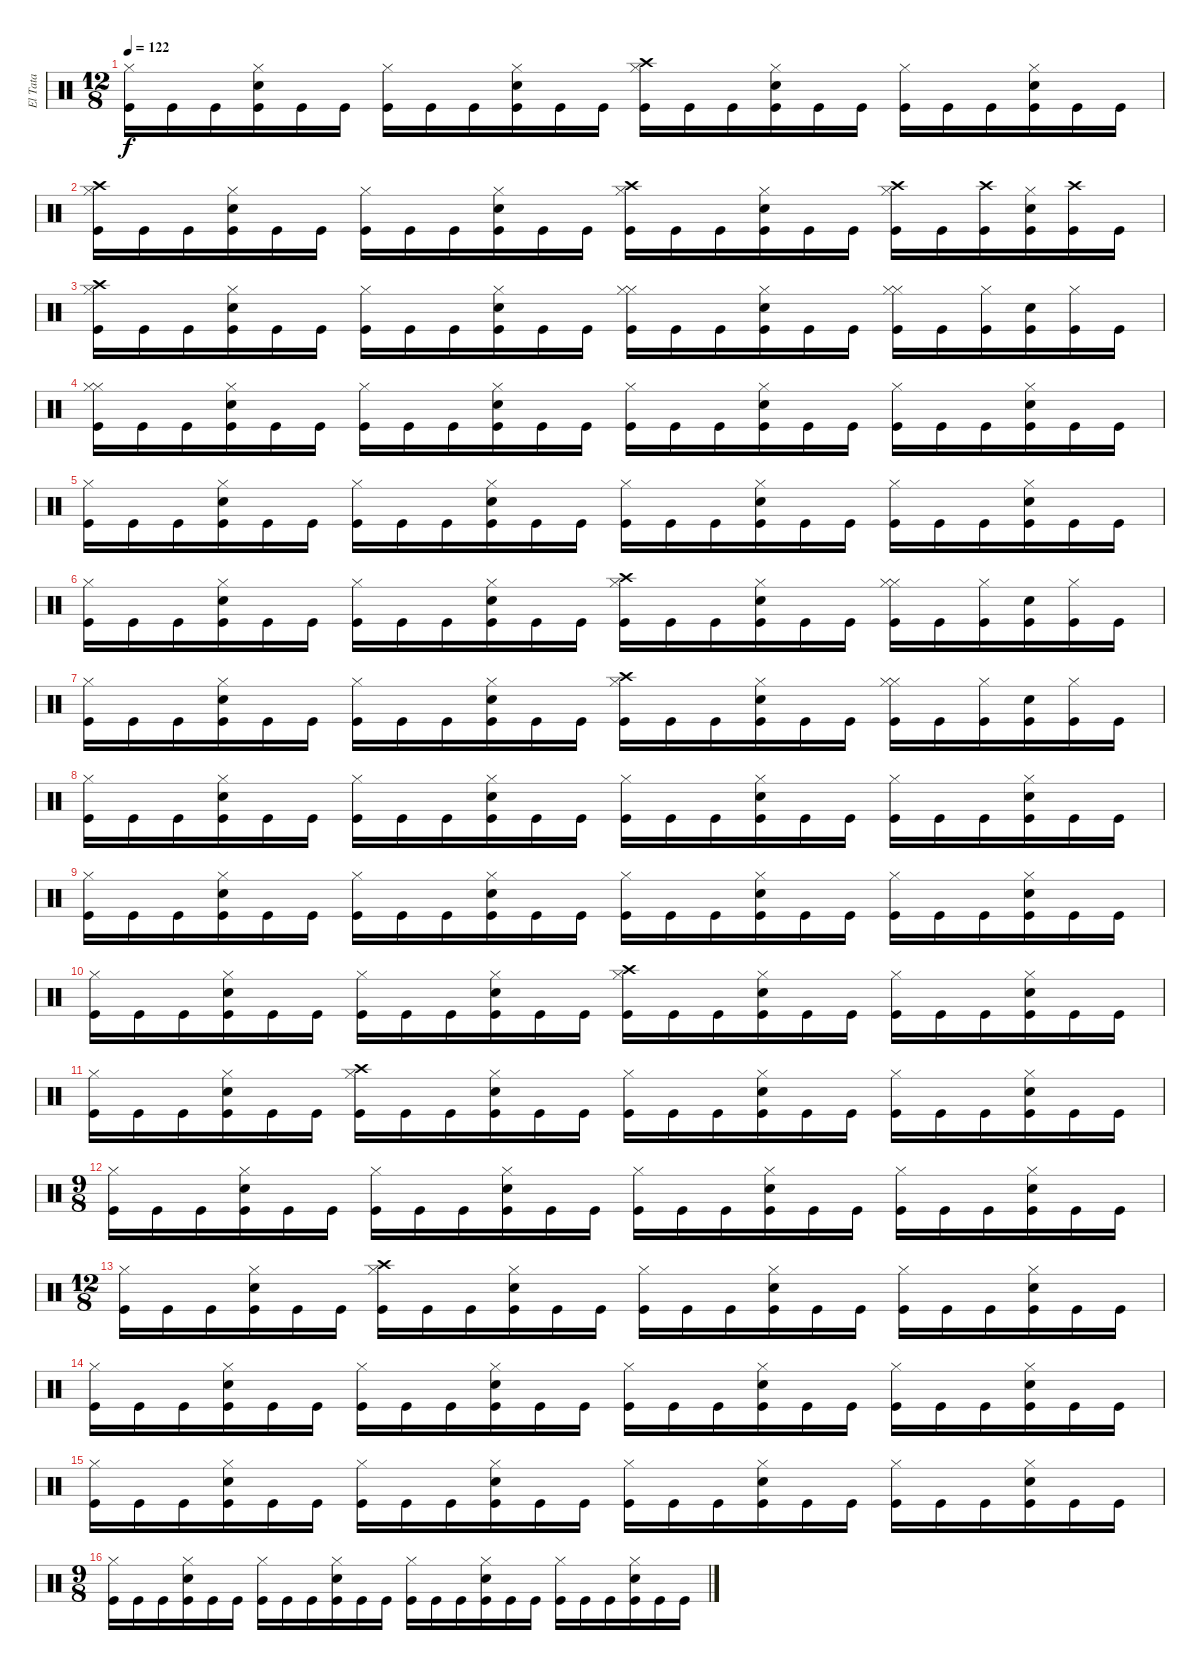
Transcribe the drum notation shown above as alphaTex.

\track ("El Tata" "El Tata") {instrument percussion}
\staff {score}
\articulation defaults
\ts (12 8)
\tempo 122
\clef neutral
\ks c
("Kick (hit)" "Hi-Hat (closed)").16{dy f} "Kick (hit)".16 "Kick (hit)".16 ("Kick (hit)" "Hi-Hat (closed)" "Electric Snare (hit)").16 "Kick (hit)".16 "Kick (hit)".16 ("Kick (hit)" "Hi-Hat (closed)").16 "Kick (hit)".16 "Kick (hit)".16 ("Kick (hit)" "Hi-Hat (closed)" "Electric Snare (hit)").16 "Kick (hit)".16 "Kick (hit)".16 ("Kick (hit)" "Hi-Hat (closed)" "Crash high (hit)").16 "Kick (hit)".16 "Kick (hit)".16 ("Kick (hit)" "Hi-Hat (closed)" "Electric Snare (hit)").16 "Kick (hit)".16 "Kick (hit)".16 ("Kick (hit)" "Hi-Hat (closed)").16 "Kick (hit)".16 "Kick (hit)".16 ("Kick (hit)" "Hi-Hat (closed)" "Electric Snare (hit)").16 "Kick (hit)".16 "Kick (hit)".16 |
("Kick (hit)" "Hi-Hat (closed)" "Crash high (hit)").16 "Kick (hit)".16 "Kick (hit)".16 ("Kick (hit)" "Hi-Hat (closed)" "Electric Snare (hit)").16 "Kick (hit)".16 "Kick (hit)".16 ("Kick (hit)" "Hi-Hat (closed)").16 "Kick (hit)".16 "Kick (hit)".16 ("Kick (hit)" "Hi-Hat (closed)" "Electric Snare (hit)").16 "Kick (hit)".16 "Kick (hit)".16 ("Kick (hit)" "Hi-Hat (closed)" "Crash high (hit)").16 "Kick (hit)".16 "Kick (hit)".16 ("Kick (hit)" "Hi-Hat (closed)" "Electric Snare (hit)").16 "Kick (hit)".16 "Kick (hit)".16 ("Kick (hit)" "Hi-Hat (closed)" "Crash high (hit)").16 "Kick (hit)".16 ("Kick (hit)" "Crash high (hit)").16 ("Kick (hit)" "Hi-Hat (closed)" "Electric Snare (hit)").16 ("Kick (hit)" "Crash high (hit)").16 "Kick (hit)".16 |
("Kick (hit)" "Hi-Hat (closed)" "Crash high (hit)").16 "Kick (hit)".16 "Kick (hit)".16 ("Kick (hit)" "Hi-Hat (closed)" "Electric Snare (hit)").16 "Kick (hit)".16 "Kick (hit)".16 ("Kick (hit)" "Hi-Hat (closed)").16 "Kick (hit)".16 "Kick (hit)".16 ("Kick (hit)" "Hi-Hat (closed)" "Electric Snare (hit)").16 "Kick (hit)".16 "Kick (hit)".16 ("Kick (hit)" "Hi-Hat (closed)" "Hi-Hat (closed)").16 "Kick (hit)".16 "Kick (hit)".16 ("Kick (hit)" "Hi-Hat (closed)" "Electric Snare (hit)").16 "Kick (hit)".16 "Kick (hit)".16 ("Kick (hit)" "Hi-Hat (closed)" "Hi-Hat (closed)").16 "Kick (hit)".16 ("Kick (hit)" "Hi-Hat (closed)").16 ("Kick (hit)" "Electric Snare (hit)").16 ("Kick (hit)" "Hi-Hat (closed)").16 "Kick (hit)".16 |
("Kick (hit)" "Hi-Hat (closed)" "Hi-Hat (closed)").16 "Kick (hit)".16 "Kick (hit)".16 ("Kick (hit)" "Hi-Hat (closed)" "Electric Snare (hit)").16 "Kick (hit)".16 "Kick (hit)".16 ("Kick (hit)" "Hi-Hat (closed)").16 "Kick (hit)".16 "Kick (hit)".16 ("Kick (hit)" "Hi-Hat (closed)" "Electric Snare (hit)").16 "Kick (hit)".16 "Kick (hit)".16 ("Kick (hit)" "Hi-Hat (closed)").16 "Kick (hit)".16 "Kick (hit)".16 ("Kick (hit)" "Hi-Hat (closed)" "Electric Snare (hit)").16 "Kick (hit)".16 "Kick (hit)".16 ("Kick (hit)" "Hi-Hat (closed)").16 "Kick (hit)".16 "Kick (hit)".16 ("Kick (hit)" "Hi-Hat (closed)" "Electric Snare (hit)").16 "Kick (hit)".16 "Kick (hit)".16 |
("Kick (hit)" "Hi-Hat (closed)").16 "Kick (hit)".16 "Kick (hit)".16 ("Kick (hit)" "Hi-Hat (closed)" "Electric Snare (hit)").16 "Kick (hit)".16 "Kick (hit)".16 ("Kick (hit)" "Hi-Hat (closed)").16 "Kick (hit)".16 "Kick (hit)".16 ("Kick (hit)" "Hi-Hat (closed)" "Electric Snare (hit)").16 "Kick (hit)".16 "Kick (hit)".16 ("Kick (hit)" "Hi-Hat (closed)").16 "Kick (hit)".16 "Kick (hit)".16 ("Kick (hit)" "Hi-Hat (closed)" "Electric Snare (hit)").16 "Kick (hit)".16 "Kick (hit)".16 ("Kick (hit)" "Hi-Hat (closed)").16 "Kick (hit)".16 "Kick (hit)".16 ("Kick (hit)" "Hi-Hat (closed)" "Electric Snare (hit)").16 "Kick (hit)".16 "Kick (hit)".16 |
("Kick (hit)" "Hi-Hat (closed)").16 "Kick (hit)".16 "Kick (hit)".16 ("Kick (hit)" "Hi-Hat (closed)" "Electric Snare (hit)").16 "Kick (hit)".16 "Kick (hit)".16 ("Kick (hit)" "Hi-Hat (closed)").16 "Kick (hit)".16 "Kick (hit)".16 ("Kick (hit)" "Hi-Hat (closed)" "Electric Snare (hit)").16 "Kick (hit)".16 "Kick (hit)".16 ("Kick (hit)" "Hi-Hat (closed)" "Crash high (hit)").16 "Kick (hit)".16 "Kick (hit)".16 ("Kick (hit)" "Hi-Hat (closed)" "Electric Snare (hit)").16 "Kick (hit)".16 "Kick (hit)".16 ("Kick (hit)" "Hi-Hat (closed)" "Hi-Hat (closed)").16 "Kick (hit)".16 ("Kick (hit)" "Hi-Hat (closed)").16 ("Kick (hit)" "Electric Snare (hit)").16 ("Kick (hit)" "Hi-Hat (closed)").16 "Kick (hit)".16 |
("Kick (hit)" "Hi-Hat (closed)").16 "Kick (hit)".16 "Kick (hit)".16 ("Kick (hit)" "Hi-Hat (closed)" "Electric Snare (hit)").16 "Kick (hit)".16 "Kick (hit)".16 ("Kick (hit)" "Hi-Hat (closed)").16 "Kick (hit)".16 "Kick (hit)".16 ("Kick (hit)" "Hi-Hat (closed)" "Electric Snare (hit)").16 "Kick (hit)".16 "Kick (hit)".16 ("Kick (hit)" "Hi-Hat (closed)" "Crash high (hit)").16 "Kick (hit)".16 "Kick (hit)".16 ("Kick (hit)" "Hi-Hat (closed)" "Electric Snare (hit)").16 "Kick (hit)".16 "Kick (hit)".16 ("Kick (hit)" "Hi-Hat (closed)" "Hi-Hat (closed)").16 "Kick (hit)".16 ("Kick (hit)" "Hi-Hat (closed)").16 ("Kick (hit)" "Electric Snare (hit)").16 ("Kick (hit)" "Hi-Hat (closed)").16 "Kick (hit)".16 |
("Kick (hit)" "Hi-Hat (closed)").16 "Kick (hit)".16 "Kick (hit)".16 ("Kick (hit)" "Hi-Hat (closed)" "Electric Snare (hit)").16 "Kick (hit)".16 "Kick (hit)".16 ("Kick (hit)" "Hi-Hat (closed)").16 "Kick (hit)".16 "Kick (hit)".16 ("Kick (hit)" "Hi-Hat (closed)" "Electric Snare (hit)").16 "Kick (hit)".16 "Kick (hit)".16 ("Kick (hit)" "Hi-Hat (closed)").16 "Kick (hit)".16 "Kick (hit)".16 ("Kick (hit)" "Hi-Hat (closed)" "Electric Snare (hit)").16 "Kick (hit)".16 "Kick (hit)".16 ("Kick (hit)" "Hi-Hat (closed)").16 "Kick (hit)".16 "Kick (hit)".16 ("Kick (hit)" "Hi-Hat (closed)" "Electric Snare (hit)").16 "Kick (hit)".16 "Kick (hit)".16 |
("Kick (hit)" "Hi-Hat (closed)").16 "Kick (hit)".16 "Kick (hit)".16 ("Kick (hit)" "Hi-Hat (closed)" "Electric Snare (hit)").16 "Kick (hit)".16 "Kick (hit)".16 ("Kick (hit)" "Hi-Hat (closed)").16 "Kick (hit)".16 "Kick (hit)".16 ("Kick (hit)" "Hi-Hat (closed)" "Electric Snare (hit)").16 "Kick (hit)".16 "Kick (hit)".16 ("Kick (hit)" "Hi-Hat (closed)").16 "Kick (hit)".16 "Kick (hit)".16 ("Kick (hit)" "Hi-Hat (closed)" "Electric Snare (hit)").16 "Kick (hit)".16 "Kick (hit)".16 ("Kick (hit)" "Hi-Hat (closed)").16 "Kick (hit)".16 "Kick (hit)".16 ("Kick (hit)" "Hi-Hat (closed)" "Electric Snare (hit)").16 "Kick (hit)".16 "Kick (hit)".16 |
("Kick (hit)" "Hi-Hat (closed)").16 "Kick (hit)".16 "Kick (hit)".16 ("Kick (hit)" "Hi-Hat (closed)" "Electric Snare (hit)").16 "Kick (hit)".16 "Kick (hit)".16 ("Kick (hit)" "Hi-Hat (closed)").16 "Kick (hit)".16 "Kick (hit)".16 ("Kick (hit)" "Hi-Hat (closed)" "Electric Snare (hit)").16 "Kick (hit)".16 "Kick (hit)".16 ("Kick (hit)" "Hi-Hat (closed)" "Crash high (hit)").16 "Kick (hit)".16 "Kick (hit)".16 ("Kick (hit)" "Hi-Hat (closed)" "Electric Snare (hit)").16 "Kick (hit)".16 "Kick (hit)".16 ("Kick (hit)" "Hi-Hat (closed)").16 "Kick (hit)".16 "Kick (hit)".16 ("Kick (hit)" "Hi-Hat (closed)" "Electric Snare (hit)").16 "Kick (hit)".16 "Kick (hit)".16 |
("Kick (hit)" "Hi-Hat (closed)").16 "Kick (hit)".16 "Kick (hit)".16 ("Kick (hit)" "Hi-Hat (closed)" "Electric Snare (hit)").16 "Kick (hit)".16 "Kick (hit)".16 ("Kick (hit)" "Hi-Hat (closed)" "Crash high (hit)").16 "Kick (hit)".16 "Kick (hit)".16 ("Kick (hit)" "Hi-Hat (closed)" "Electric Snare (hit)").16 "Kick (hit)".16 "Kick (hit)".16 ("Kick (hit)" "Hi-Hat (closed)").16 "Kick (hit)".16 "Kick (hit)".16 ("Kick (hit)" "Hi-Hat (closed)" "Electric Snare (hit)").16 "Kick (hit)".16 "Kick (hit)".16 ("Kick (hit)" "Hi-Hat (closed)").16 "Kick (hit)".16 "Kick (hit)".16 ("Kick (hit)" "Hi-Hat (closed)" "Electric Snare (hit)").16 "Kick (hit)".16 "Kick (hit)".16 |
\ts (9 8)
("Kick (hit)" "Hi-Hat (closed)").16 "Kick (hit)".16 "Kick (hit)".16 ("Kick (hit)" "Hi-Hat (closed)" "Electric Snare (hit)").16 "Kick (hit)".16 "Kick (hit)".16 ("Kick (hit)" "Hi-Hat (closed)").16 "Kick (hit)".16 "Kick (hit)".16 ("Kick (hit)" "Hi-Hat (closed)" "Electric Snare (hit)").16 "Kick (hit)".16 "Kick (hit)".16 ("Kick (hit)" "Hi-Hat (closed)").16 "Kick (hit)".16 "Kick (hit)".16 ("Kick (hit)" "Hi-Hat (closed)" "Electric Snare (hit)").16 "Kick (hit)".16 "Kick (hit)".16 ("Kick (hit)" "Hi-Hat (closed)").16 "Kick (hit)".16 "Kick (hit)".16 ("Kick (hit)" "Hi-Hat (closed)" "Electric Snare (hit)").16 "Kick (hit)".16 "Kick (hit)".16 |
\ts (12 8)
("Kick (hit)" "Hi-Hat (closed)").16 "Kick (hit)".16 "Kick (hit)".16 ("Kick (hit)" "Hi-Hat (closed)" "Electric Snare (hit)").16 "Kick (hit)".16 "Kick (hit)".16 ("Kick (hit)" "Hi-Hat (closed)" "Crash high (hit)").16 "Kick (hit)".16 "Kick (hit)".16 ("Kick (hit)" "Hi-Hat (closed)" "Electric Snare (hit)").16 "Kick (hit)".16 "Kick (hit)".16 ("Kick (hit)" "Hi-Hat (closed)").16 "Kick (hit)".16 "Kick (hit)".16 ("Kick (hit)" "Hi-Hat (closed)" "Electric Snare (hit)").16 "Kick (hit)".16 "Kick (hit)".16 ("Kick (hit)" "Hi-Hat (closed)").16 "Kick (hit)".16 "Kick (hit)".16 ("Kick (hit)" "Hi-Hat (closed)" "Electric Snare (hit)").16 "Kick (hit)".16 "Kick (hit)".16 |
("Kick (hit)" "Hi-Hat (closed)").16 "Kick (hit)".16 "Kick (hit)".16 ("Kick (hit)" "Hi-Hat (closed)" "Electric Snare (hit)").16 "Kick (hit)".16 "Kick (hit)".16 ("Kick (hit)" "Hi-Hat (closed)").16 "Kick (hit)".16 "Kick (hit)".16 ("Kick (hit)" "Hi-Hat (closed)" "Electric Snare (hit)").16 "Kick (hit)".16 "Kick (hit)".16 ("Kick (hit)" "Hi-Hat (closed)").16 "Kick (hit)".16 "Kick (hit)".16 ("Kick (hit)" "Hi-Hat (closed)" "Electric Snare (hit)").16 "Kick (hit)".16 "Kick (hit)".16 ("Kick (hit)" "Hi-Hat (closed)").16 "Kick (hit)".16 "Kick (hit)".16 ("Kick (hit)" "Hi-Hat (closed)" "Electric Snare (hit)").16 "Kick (hit)".16 "Kick (hit)".16 |
("Kick (hit)" "Hi-Hat (closed)").16 "Kick (hit)".16 "Kick (hit)".16 ("Kick (hit)" "Hi-Hat (closed)" "Electric Snare (hit)").16 "Kick (hit)".16 "Kick (hit)".16 ("Kick (hit)" "Hi-Hat (closed)").16 "Kick (hit)".16 "Kick (hit)".16 ("Kick (hit)" "Hi-Hat (closed)" "Electric Snare (hit)").16 "Kick (hit)".16 "Kick (hit)".16 ("Kick (hit)" "Hi-Hat (closed)").16 "Kick (hit)".16 "Kick (hit)".16 ("Kick (hit)" "Hi-Hat (closed)" "Electric Snare (hit)").16 "Kick (hit)".16 "Kick (hit)".16 ("Kick (hit)" "Hi-Hat (closed)").16 "Kick (hit)".16 "Kick (hit)".16 ("Kick (hit)" "Hi-Hat (closed)" "Electric Snare (hit)").16 "Kick (hit)".16 "Kick (hit)".16 |
\ts (9 8)
("Kick (hit)" "Hi-Hat (closed)").16 "Kick (hit)".16 "Kick (hit)".16 ("Kick (hit)" "Hi-Hat (closed)" "Electric Snare (hit)").16 "Kick (hit)".16 "Kick (hit)".16 ("Kick (hit)" "Hi-Hat (closed)").16 "Kick (hit)".16 "Kick (hit)".16 ("Kick (hit)" "Hi-Hat (closed)" "Electric Snare (hit)").16 "Kick (hit)".16 "Kick (hit)".16 ("Kick (hit)" "Hi-Hat (closed)").16 "Kick (hit)".16 "Kick (hit)".16 ("Kick (hit)" "Hi-Hat (closed)" "Electric Snare (hit)").16 "Kick (hit)".16 "Kick (hit)".16 ("Kick (hit)" "Hi-Hat (closed)").16 "Kick (hit)".16 "Kick (hit)".16 ("Kick (hit)" "Hi-Hat (closed)" "Electric Snare (hit)").16 "Kick (hit)".16 "Kick (hit)".16
